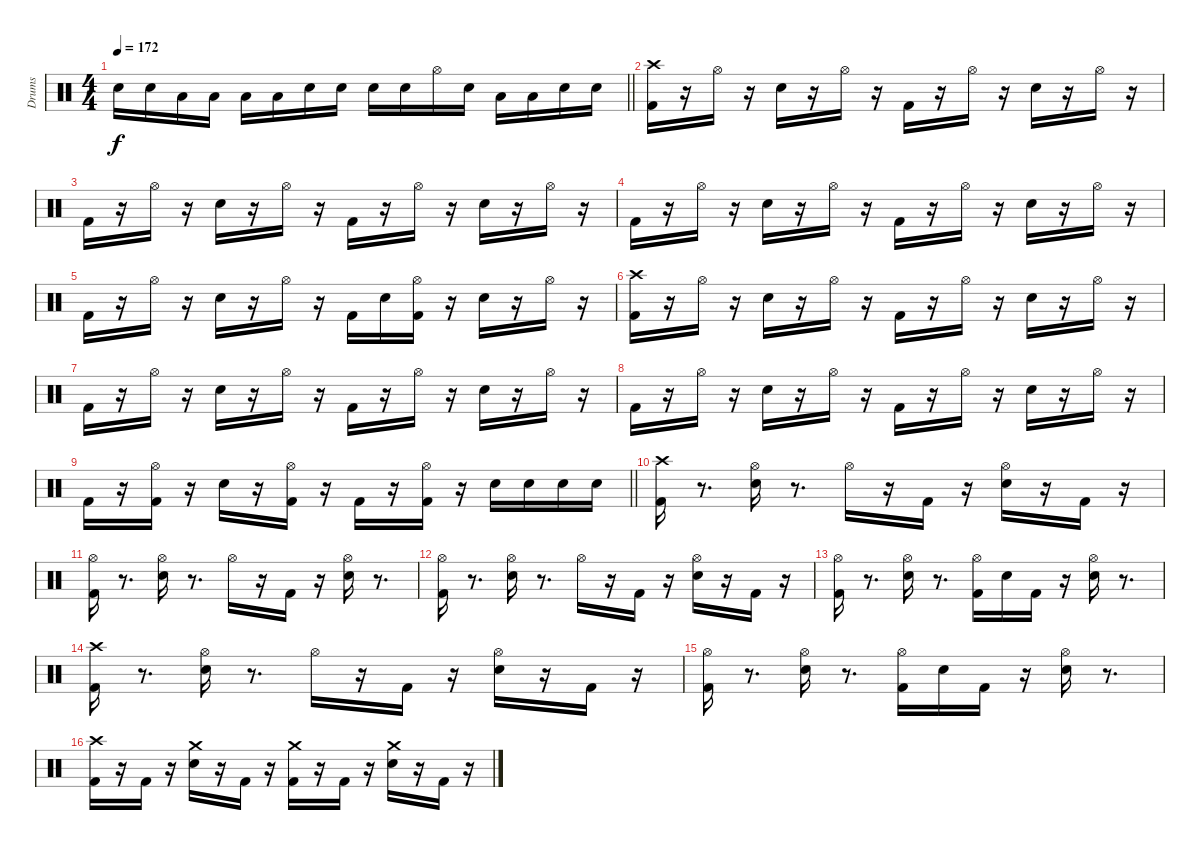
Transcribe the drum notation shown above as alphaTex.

\track ("Drums" "Drums") {instrument percussion}
\staff {score}
\articulation defaults
\ts (4 4)
\tempo 172
\clef neutral
\barLineRight lightlight
\ks c "Snare (hit) 2".16{dy f} "Snare (hit) 2".16 "Low Tom (hit)".16 "Low Tom (hit)".16 "Low Tom (hit)".16 "Low Tom (hit)".16 "Snare (hit) 2".16 "Snare (hit) 2".16 "Snare (hit) 2".16 "Snare (hit) 2".16 "Hi-Hat (open)".16 "Snare (hit) 2".16 "Low Tom (hit)".16 "Low Tom (hit)".16 "Snare (hit) 2".16 "Snare (hit) 2".16
|
\section ("" " ")
("Kick (hit) 2" "Crash high (hit)").16 r.16 "Hi-Hat (open)".16 r.16 "Snare (hit) 2".16 r.16 "Hi-Hat (open)".16 r.16 "Kick (hit) 2".16 r.16 "Hi-Hat (open)".16 r.16 "Snare (hit) 2".16 r.16 "Hi-Hat (open)".16 r.16 |
"Kick (hit) 2".16 r.16 "Hi-Hat (open)".16 r.16 "Snare (hit) 2".16 r.16 "Hi-Hat (open)".16 r.16 "Kick (hit) 2".16 r.16 "Hi-Hat (open)".16 r.16 "Snare (hit) 2".16 r.16 "Hi-Hat (open)".16 r.16 |
"Kick (hit) 2".16 r.16 "Hi-Hat (open)".16 r.16 "Snare (hit) 2".16 r.16 "Hi-Hat (open)".16 r.16 "Kick (hit) 2".16 r.16 "Hi-Hat (open)".16 r.16 "Snare (hit) 2".16 r.16 "Hi-Hat (open)".16 r.16 |
"Kick (hit) 2".16 r.16 "Hi-Hat (open)".16 r.16 "Snare (hit) 2".16 r.16 "Hi-Hat (open)".16 r.16 "Kick (hit) 2".16 "Snare (hit) 2".16 ("Kick (hit) 2" "Hi-Hat (open)").16 r.16 "Snare (hit) 2".16 r.16 "Hi-Hat (open)".16 r.16 |
("Kick (hit) 2" "Crash high (hit)").16 r.16 "Hi-Hat (open)".16 r.16 "Snare (hit) 2".16 r.16 "Hi-Hat (open)".16 r.16 "Kick (hit) 2".16 r.16 "Hi-Hat (open)".16 r.16 "Snare (hit) 2".16 r.16 "Hi-Hat (open)".16 r.16 |
"Kick (hit) 2".16 r.16 "Hi-Hat (open)".16 r.16 "Snare (hit) 2".16 r.16 "Hi-Hat (open)".16 r.16 "Kick (hit) 2".16 r.16 "Hi-Hat (open)".16 r.16 "Snare (hit) 2".16 r.16 "Hi-Hat (open)".16 r.16 |
"Kick (hit) 2".16 r.16 "Hi-Hat (open)".16 r.16 "Snare (hit) 2".16 r.16 "Hi-Hat (open)".16 r.16 "Kick (hit) 2".16 r.16 "Hi-Hat (open)".16 r.16 "Snare (hit) 2".16 r.16 "Hi-Hat (open)".16 r.16 |
\barLineRight lightlight "Kick (hit) 2".16
r.16 ("Kick (hit) 2" "Hi-Hat (open)").16 r.16 "Snare (hit) 2".16 r.16 ("Kick (hit) 2" "Hi-Hat (open)").16 r.16 "Kick (hit) 2".16 r.16 ("Kick (hit) 2" "Hi-Hat (open)").16 r.16 "Snare (hit) 2".16 "Snare (hit) 2".16 "Snare (hit) 2".16 "Snare (hit) 2".16 |
("Kick (hit) 2" "Crash high (hit)").16 r.8{d} ("Snare (hit) 2" "Hi-Hat (open)").16 r.8{d} "Hi-Hat (open)".16 r.16 "Kick (hit) 2".16 r.16 ("Snare (hit) 2" "Hi-Hat (open)").16 r.16 "Kick (hit) 2".16 r.16 |
("Kick (hit) 2" "Hi-Hat (open)").16 r.8{d} ("Snare (hit) 2" "Hi-Hat (open)").16 r.8{d} "Hi-Hat (open)".16 r.16 "Kick (hit) 2".16 r.16 ("Snare (hit) 2" "Hi-Hat (open)").16 r.8{d} |
("Kick (hit) 2" "Hi-Hat (open)").16 r.8{d} ("Snare (hit) 2" "Hi-Hat (open)").16 r.8{d} "Hi-Hat (open)".16 r.16 "Kick (hit) 2".16 r.16 ("Snare (hit) 2" "Hi-Hat (open)").16 r.16 "Kick (hit) 2".16 r.16 |
("Kick (hit) 2" "Hi-Hat (open)").16 r.8{d} ("Snare (hit) 2" "Hi-Hat (open)").16 r.8{d} ("Kick (hit) 2" "Hi-Hat (open)").16 "Snare (hit) 2".16 "Kick (hit) 2".16 r.16 ("Snare (hit) 2" "Hi-Hat (open)").16 r.8{d} |
("Kick (hit) 2" "Crash high (hit)").16 r.8{d} ("Snare (hit) 2" "Hi-Hat (open)").16 r.8{d} "Hi-Hat (open)".16 r.16 "Kick (hit) 2".16 r.16 ("Snare (hit) 2" "Hi-Hat (open)").16 r.16 "Kick (hit) 2".16 r.16 |
("Kick (hit) 2" "Hi-Hat (open)").16 r.8{d} ("Snare (hit) 2" "Hi-Hat (open)").16 r.8{d} ("Kick (hit) 2" "Hi-Hat (open)").16 "Snare (hit) 2".16 "Kick (hit) 2".16 r.16 ("Snare (hit) 2" "Hi-Hat (open)").16 r.8{d} |
("Kick (hit) 2" "Crash high (hit)").16 r.16 "Kick (hit) 2".16 r.16 ("Snare (hit) 2" "Crash medium (hit)").16 r.16 "Kick (hit) 2".16 r.16 ("Kick (hit) 2" "Crash medium (hit)").16 r.16 "Kick (hit) 2".16 r.16 ("Snare (hit) 2" "Crash medium (hit)").16 r.16 "Kick (hit) 2".16 r.16
